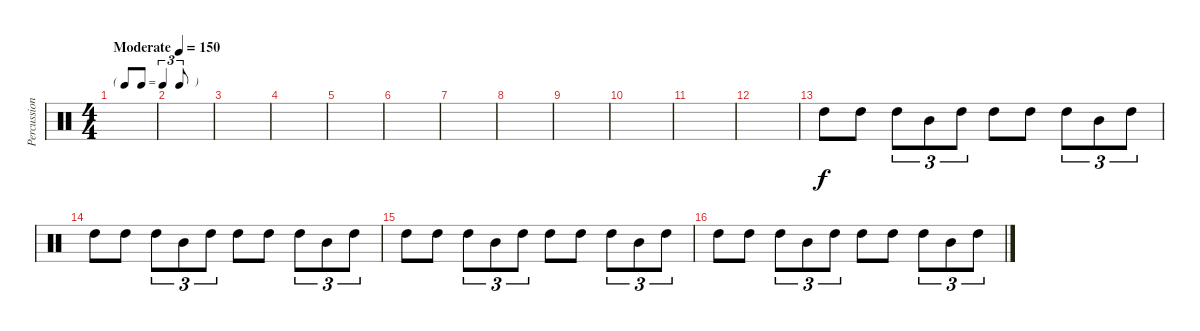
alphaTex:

\track ("Percussion" "Percussion") {instrument percussion}
\staff {score}
\articulation defaults
\ts (4 4)
\tf triplet8th
\tempo (150 "Moderate")
\clef neutral
\ks c
|
|
|
|
|
|
|
|
|
|
|
|
"High Tom (hit)".8 "High Tom (hit)".8 "High Tom (hit)".8{tu (3 2)} "Mid Tom (hit)".8{tu (3 2)} "High Tom (hit)".8{tu (3 2)} "High Tom (hit)".8 "High Tom (hit)".8 "High Tom (hit)".8{tu (3 2)} "Mid Tom (hit)".8{tu (3 2)} "High Tom (hit)".8{tu (3 2)} |
"High Tom (hit)".8 "High Tom (hit)".8 "High Tom (hit)".8{tu (3 2)} "Mid Tom (hit)".8{tu (3 2)} "High Tom (hit)".8{tu (3 2)} "High Tom (hit)".8 "High Tom (hit)".8 "High Tom (hit)".8{tu (3 2)} "Mid Tom (hit)".8{tu (3 2)} "High Tom (hit)".8{tu (3 2)} |
"High Tom (hit)".8 "High Tom (hit)".8 "High Tom (hit)".8{tu (3 2)} "Mid Tom (hit)".8{tu (3 2)} "High Tom (hit)".8{tu (3 2)} "High Tom (hit)".8 "High Tom (hit)".8 "High Tom (hit)".8{tu (3 2)} "Mid Tom (hit)".8{tu (3 2)} "High Tom (hit)".8{tu (3 2)} |
"High Tom (hit)".8 "High Tom (hit)".8 "High Tom (hit)".8{tu (3 2)} "Mid Tom (hit)".8{tu (3 2)} "High Tom (hit)".8{tu (3 2)} "High Tom (hit)".8 "High Tom (hit)".8 "High Tom (hit)".8{tu (3 2)} "Mid Tom (hit)".8{tu (3 2)} "High Tom (hit)".8{tu (3 2)}
